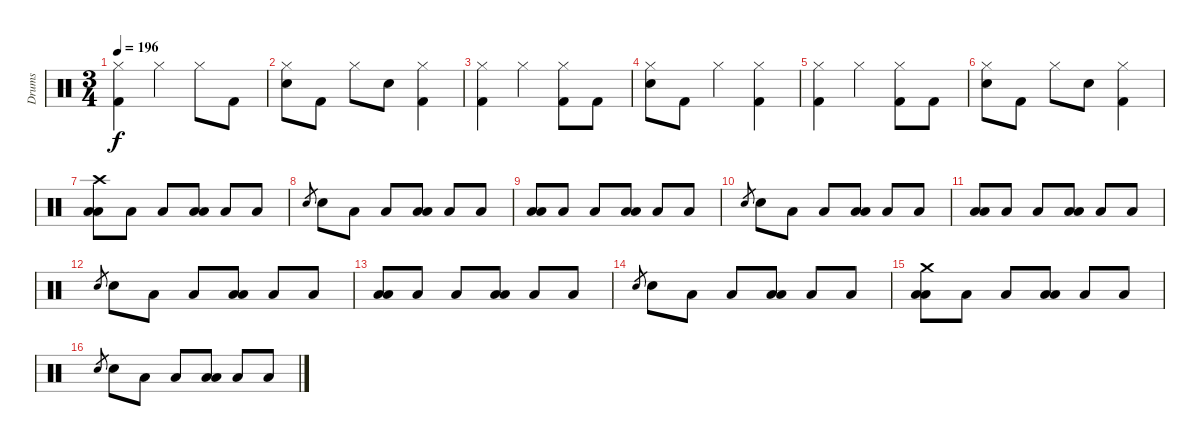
\track ("Drums" "Drums") {instrument percussion}
\staff {score}
\articulation defaults
\ts (3 4)
\tempo 196
\clef neutral
\ks c
("Hi-Hat (closed)" "Kick (hit) 2").4{dy f} "Hi-Hat (closed)".4 "Hi-Hat (closed)".8 "Kick (hit) 2".8 |
("Hi-Hat (closed)" "Electric Snare (hit)").8 "Kick (hit) 2".8 "Hi-Hat (closed)".8 "Electric Snare (hit)".8 ("Hi-Hat (closed)" "Kick (hit) 2").4 |
("Hi-Hat (closed)" "Kick (hit) 2").4 "Hi-Hat (closed)".4 ("Hi-Hat (closed)" "Kick (hit) 2").8 "Kick (hit) 2".8 |
("Hi-Hat (closed)" "Electric Snare (hit)").8 "Kick (hit) 2".8 "Hi-Hat (closed)".4 ("Hi-Hat (closed)" "Kick (hit) 2").4 |
("Hi-Hat (closed)" "Kick (hit) 2").4 "Hi-Hat (closed)".4 ("Hi-Hat (closed)" "Kick (hit) 2").8 "Kick (hit) 2".8 |
("Hi-Hat (closed)" "Electric Snare (hit)").8 "Kick (hit) 2".8 "Hi-Hat (closed)".8 "Electric Snare (hit)".8 ("Hi-Hat (closed)" "Kick (hit) 2").4 |
("Crash high (hit)" "Low Tom (hit)" "Low Floor Tom (hit)").8 "Low Floor Tom (hit)".8 "Low Floor Tom (hit)".8 ("Low Tom (hit)" "Low Floor Tom (hit)").8 "Low Floor Tom (hit)".8 "Low Floor Tom (hit)".8 |
"Electric Snare (hit)".8{gr} "Electric Snare (hit)".8 "Low Floor Tom (hit)".8 "Low Floor Tom (hit)".8 ("Low Tom (hit)" "Low Floor Tom (hit)").8 "Low Floor Tom (hit)".8 "Low Floor Tom (hit)".8 |
("Low Tom (hit)" "Low Floor Tom (hit)").8 "Low Floor Tom (hit)".8 "Low Floor Tom (hit)".8 ("Low Tom (hit)" "Low Floor Tom (hit)").8 "Low Floor Tom (hit)".8 "Low Floor Tom (hit)".8 |
"Electric Snare (hit)".8{gr} "Electric Snare (hit)".8 "Low Floor Tom (hit)".8 "Low Floor Tom (hit)".8 ("Low Tom (hit)" "Low Floor Tom (hit)").8 "Low Floor Tom (hit)".8 "Low Floor Tom (hit)".8 |
("Low Tom (hit)" "Low Floor Tom (hit)").8 "Low Floor Tom (hit)".8 "Low Floor Tom (hit)".8 ("Low Tom (hit)" "Low Floor Tom (hit)").8 "Low Floor Tom (hit)".8 "Low Floor Tom (hit)".8 |
"Electric Snare (hit)".8{gr} "Electric Snare (hit)".8 "Low Floor Tom (hit)".8 "Low Floor Tom (hit)".8 ("Low Tom (hit)" "Low Floor Tom (hit)").8 "Low Floor Tom (hit)".8 "Low Floor Tom (hit)".8 |
("Low Tom (hit)" "Low Floor Tom (hit)").8 "Low Floor Tom (hit)".8 "Low Floor Tom (hit)".8 ("Low Tom (hit)" "Low Floor Tom (hit)").8 "Low Floor Tom (hit)".8 "Low Floor Tom (hit)".8 |
"Electric Snare (hit)".8{gr} "Electric Snare (hit)".8 "Low Floor Tom (hit)".8 "Low Floor Tom (hit)".8 ("Low Tom (hit)" "Low Floor Tom (hit)").8 "Low Floor Tom (hit)".8 "Low Floor Tom (hit)".8 |
("Crash medium (hit)" "Low Tom (hit)" "Low Floor Tom (hit)").8 "Low Floor Tom (hit)".8 "Low Floor Tom (hit)".8 ("Low Tom (hit)" "Low Floor Tom (hit)").8 "Low Floor Tom (hit)".8 "Low Floor Tom (hit)".8 |
"Electric Snare (hit)".8{gr} "Electric Snare (hit)".8 "Low Floor Tom (hit)".8 "Low Floor Tom (hit)".8 ("Low Tom (hit)" "Low Floor Tom (hit)").8 "Low Floor Tom (hit)".8 "Low Floor Tom (hit)".8
